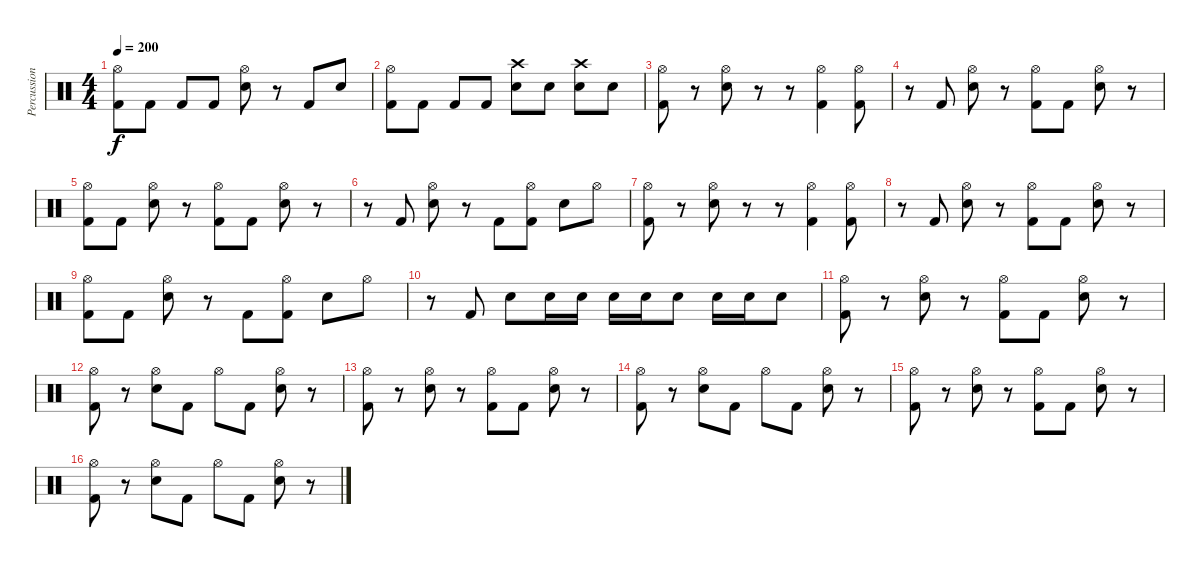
\track ("Percussions" "Percussion") {instrument percussion}
\staff {score}
\articulation defaults
\ts (4 4)
\tempo 200
\clef neutral
\ks c
("Hi-Hat (open)" "Kick (hit) 2").8{dy f} "Kick (hit) 2".8 "Kick (hit) 2".8 "Kick (hit) 2".8 ("Hi-Hat (open)" "Electric Snare (hit)").8 r.8 "Kick (hit) 2".8 "Electric Snare (hit)".8 |
("Hi-Hat (open)" "Kick (hit) 2").8 "Kick (hit) 2".8 "Kick (hit) 2".8 "Kick (hit) 2".8 ("Crash high (hit)" "Electric Snare (hit)").8 "Electric Snare (hit)".8 ("Crash high (hit)" "Electric Snare (hit)").8 "Electric Snare (hit)".8 |
("Hi-Hat (open)" "Kick (hit) 2").8 r.8 ("Hi-Hat (open)" "Electric Snare (hit)").8 r.8 r.8 ("Hi-Hat (open)" "Kick (hit) 2").4 ("Hi-Hat (open)" "Kick (hit) 2").8 |
r.8 "Kick (hit) 2".8 ("Hi-Hat (open)" "Electric Snare (hit)").8 r.8 ("Hi-Hat (open)" "Kick (hit) 2").8 "Kick (hit) 2".8 ("Hi-Hat (open)" "Electric Snare (hit)").8 r.8 |
("Hi-Hat (open)" "Kick (hit) 2").8 "Kick (hit) 2".8 ("Hi-Hat (open)" "Electric Snare (hit)").8 r.8 ("Hi-Hat (open)" "Kick (hit) 2").8 "Kick (hit) 2".8 ("Hi-Hat (open)" "Electric Snare (hit)").8 r.8 |
r.8 "Kick (hit) 2".8 ("Hi-Hat (open)" "Electric Snare (hit)").8 r.8 "Kick (hit) 2".8 ("Hi-Hat (open)" "Kick (hit) 2").8 "Electric Snare (hit)".8 "Hi-Hat (open)".8 |
("Hi-Hat (open)" "Kick (hit) 2").8 r.8 ("Hi-Hat (open)" "Electric Snare (hit)").8 r.8 r.8 ("Hi-Hat (open)" "Kick (hit) 2").4 ("Hi-Hat (open)" "Kick (hit) 2").8 |
r.8 "Kick (hit) 2".8 ("Hi-Hat (open)" "Electric Snare (hit)").8 r.8 ("Hi-Hat (open)" "Kick (hit) 2").8 "Kick (hit) 2".8 ("Hi-Hat (open)" "Electric Snare (hit)").8 r.8 |
("Hi-Hat (open)" "Kick (hit) 2").8 "Kick (hit) 2".8 ("Hi-Hat (open)" "Electric Snare (hit)").8 r.8 "Kick (hit) 2".8 ("Hi-Hat (open)" "Kick (hit) 2").8 "Electric Snare (hit)".8 "Hi-Hat (open)".8 |
r.8 "Kick (hit) 2".8 "Electric Snare (hit)".8 "Electric Snare (hit)".16 "Electric Snare (hit)".16 "Electric Snare (hit)".16 "Electric Snare (hit)".16 "Electric Snare (hit)".8 "Electric Snare (hit)".16 "Electric Snare (hit)".16 "Electric Snare (hit)".8 |
("Hi-Hat (open)" "Kick (hit) 2").8 r.8 ("Hi-Hat (open)" "Electric Snare (hit)").8 r.8 ("Hi-Hat (open)" "Kick (hit) 2").8 "Kick (hit) 2".8 ("Hi-Hat (open)" "Electric Snare (hit)").8 r.8 |
("Hi-Hat (open)" "Kick (hit) 2").8 r.8 ("Hi-Hat (open)" "Electric Snare (hit)").8 "Kick (hit) 2".8 "Hi-Hat (open)".8 "Kick (hit) 2".8 ("Hi-Hat (open)" "Electric Snare (hit)").8 r.8 |
("Hi-Hat (open)" "Kick (hit) 2").8 r.8 ("Hi-Hat (open)" "Electric Snare (hit)").8 r.8 ("Hi-Hat (open)" "Kick (hit) 2").8 "Kick (hit) 2".8 ("Hi-Hat (open)" "Electric Snare (hit)").8 r.8 |
("Hi-Hat (open)" "Kick (hit) 2").8 r.8 ("Hi-Hat (open)" "Electric Snare (hit)").8 "Kick (hit) 2".8 "Hi-Hat (open)".8 "Kick (hit) 2".8 ("Hi-Hat (open)" "Electric Snare (hit)").8 r.8 |
("Hi-Hat (open)" "Kick (hit) 2").8 r.8 ("Hi-Hat (open)" "Electric Snare (hit)").8 r.8 ("Hi-Hat (open)" "Kick (hit) 2").8 "Kick (hit) 2".8 ("Hi-Hat (open)" "Electric Snare (hit)").8 r.8 |
("Hi-Hat (open)" "Kick (hit) 2").8 r.8 ("Hi-Hat (open)" "Electric Snare (hit)").8 "Kick (hit) 2".8 "Hi-Hat (open)".8 "Kick (hit) 2".8 ("Hi-Hat (open)" "Electric Snare (hit)").8 r.8
